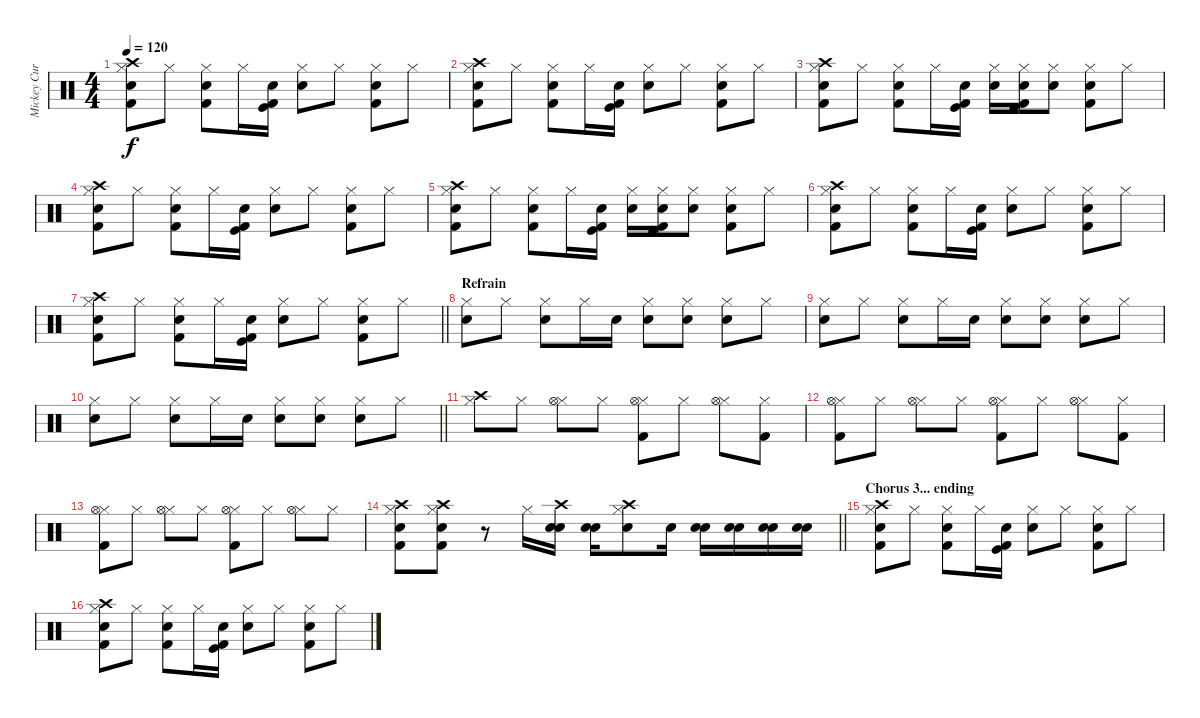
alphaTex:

\track ("Mickey Curry" "Mickey Cur") {instrument percussion}
\staff {score}
\articulation defaults
\ts (4 4)
\tempo 120
\clef neutral
\ks c
("Hi-Hat (closed)" "Snare (hit) 2" "Kick (hit) 2" "Crash high (hit)").8{dy f} "Hi-Hat (closed)".8 ("Hi-Hat (closed)" "Snare (hit) 2" "Kick (hit) 2").8 "Hi-Hat (closed)".16 ("Kick (hit)" "Kick (hit) 2" "Electric Snare (hit)").16 ("Hi-Hat (closed)" "Snare (hit) 2").8 "Hi-Hat (closed)".8 ("Hi-Hat (closed)" "Snare (hit) 2" "Kick (hit) 2").8 "Hi-Hat (closed)".8 |
("Hi-Hat (closed)" "Snare (hit) 2" "Kick (hit) 2" "Crash high (hit)").8 "Hi-Hat (closed)".8 ("Hi-Hat (closed)" "Snare (hit) 2" "Kick (hit) 2").8 "Hi-Hat (closed)".16 ("Kick (hit)" "Kick (hit) 2" "Electric Snare (hit)").16 ("Hi-Hat (closed)" "Snare (hit) 2").8 "Hi-Hat (closed)".8 ("Hi-Hat (closed)" "Snare (hit) 2" "Kick (hit) 2").8 "Hi-Hat (closed)".8 |
("Hi-Hat (closed)" "Snare (hit) 2" "Kick (hit) 2" "Crash high (hit)").8 "Hi-Hat (closed)".8 ("Hi-Hat (closed)" "Snare (hit) 2" "Kick (hit) 2").8 "Hi-Hat (closed)".16 ("Kick (hit)" "Kick (hit) 2" "Electric Snare (hit)").16 ("Hi-Hat (closed)" "Snare (hit) 2").16 ("Hi-Hat (closed)" "Kick (hit)" "Kick (hit) 2" "Electric Snare (hit)").16 ("Hi-Hat (closed)" "Snare (hit) 2").8 ("Hi-Hat (closed)" "Snare (hit) 2" "Kick (hit) 2").8 "Hi-Hat (closed)".8 |
("Hi-Hat (closed)" "Snare (hit) 2" "Kick (hit) 2" "Crash high (hit)").8 "Hi-Hat (closed)".8 ("Hi-Hat (closed)" "Snare (hit) 2" "Kick (hit) 2").8 "Hi-Hat (closed)".16 ("Kick (hit)" "Kick (hit) 2" "Electric Snare (hit)").16 ("Hi-Hat (closed)" "Snare (hit) 2").8 "Hi-Hat (closed)".8 ("Hi-Hat (closed)" "Snare (hit) 2" "Kick (hit) 2").8 "Hi-Hat (closed)".8 |
("Hi-Hat (closed)" "Snare (hit) 2" "Kick (hit) 2" "Crash high (hit)").8 "Hi-Hat (closed)".8 ("Hi-Hat (closed)" "Snare (hit) 2" "Kick (hit) 2").8 "Hi-Hat (closed)".16 ("Kick (hit)" "Kick (hit) 2" "Electric Snare (hit)").16 ("Hi-Hat (closed)" "Snare (hit) 2").16 ("Hi-Hat (closed)" "Kick (hit)" "Kick (hit) 2" "Electric Snare (hit)").16 ("Hi-Hat (closed)" "Snare (hit) 2").8 ("Hi-Hat (closed)" "Snare (hit) 2" "Kick (hit) 2").8 "Hi-Hat (closed)".8 |
("Hi-Hat (closed)" "Snare (hit) 2" "Kick (hit) 2" "Crash high (hit)").8 "Hi-Hat (closed)".8 ("Hi-Hat (closed)" "Snare (hit) 2" "Kick (hit) 2").8 "Hi-Hat (closed)".16 ("Kick (hit)" "Kick (hit) 2" "Electric Snare (hit)").16 ("Hi-Hat (closed)" "Snare (hit) 2").8 "Hi-Hat (closed)".8 ("Hi-Hat (closed)" "Snare (hit) 2" "Kick (hit) 2").8 "Hi-Hat (closed)".8 |
\barLineRight lightlight
("Hi-Hat (closed)" "Snare (hit) 2" "Kick (hit) 2" "Crash high (hit)").8 "Hi-Hat (closed)".8 ("Hi-Hat (closed)" "Snare (hit) 2" "Kick (hit) 2").8 "Hi-Hat (closed)".16 ("Kick (hit)" "Kick (hit) 2" "Electric Snare (hit)").16 ("Hi-Hat (closed)" "Snare (hit) 2").8 "Hi-Hat (closed)".8 ("Hi-Hat (closed)" "Snare (hit) 2" "Kick (hit) 2").8 "Hi-Hat (closed)".8 |
\section ("" "Refrain")
("Hi-Hat (closed)" "Snare (hit) 2").8 "Hi-Hat (closed)".8 ("Hi-Hat (closed)" "Snare (hit) 2").8 "Hi-Hat (closed)".16 "Electric Snare (hit)".16 ("Hi-Hat (closed)" "Snare (hit) 2").8 ("Hi-Hat (closed)" "Snare (hit) 2").8 ("Hi-Hat (closed)" "Snare (hit) 2").8 "Hi-Hat (closed)".8 |
("Hi-Hat (closed)" "Snare (hit) 2").8 "Hi-Hat (closed)".8 ("Hi-Hat (closed)" "Snare (hit) 2").8 "Hi-Hat (closed)".16 "Electric Snare (hit)".16 ("Hi-Hat (closed)" "Snare (hit) 2").8 ("Hi-Hat (closed)" "Snare (hit) 2").8 ("Hi-Hat (closed)" "Snare (hit) 2").8 "Hi-Hat (closed)".8 |
\barLineRight lightlight
("Hi-Hat (closed)" "Snare (hit) 2").8 "Hi-Hat (closed)".8 ("Hi-Hat (closed)" "Snare (hit) 2").8 "Hi-Hat (closed)".16 "Electric Snare (hit)".16 ("Hi-Hat (closed)" "Snare (hit) 2").8 ("Hi-Hat (closed)" "Snare (hit) 2").8 ("Hi-Hat (closed)" "Snare (hit) 2").8 "Hi-Hat (closed)".8 |
("Hi-Hat (closed)" "Crash high (hit)").8 "Hi-Hat (closed)".8 ("Hi-Hat (closed)" "Hi-Hat (open)").8 "Hi-Hat (closed)".8 ("Hi-Hat (closed)" "Kick (hit) 2" "Hi-Hat (open)").8 "Hi-Hat (closed)".8 ("Hi-Hat (closed)" "Hi-Hat (open)").8 ("Hi-Hat (closed)" "Kick (hit) 2").8 |
("Hi-Hat (closed)" "Kick (hit) 2" "Hi-Hat (open)").8 "Hi-Hat (closed)".8 ("Hi-Hat (closed)" "Hi-Hat (open)").8 "Hi-Hat (closed)".8 ("Hi-Hat (closed)" "Kick (hit) 2" "Hi-Hat (open)").8 "Hi-Hat (closed)".8 ("Hi-Hat (closed)" "Hi-Hat (open)").8 ("Hi-Hat (closed)" "Kick (hit) 2").8 |
("Hi-Hat (closed)" "Kick (hit) 2" "Hi-Hat (open)").8 "Hi-Hat (closed)".8 ("Hi-Hat (closed)" "Hi-Hat (open)").8 "Hi-Hat (closed)".8 ("Hi-Hat (closed)" "Kick (hit) 2" "Hi-Hat (open)").8 "Hi-Hat (closed)".8 ("Hi-Hat (closed)" "Hi-Hat (open)").8 "Hi-Hat (closed)".8 |
\barLineRight lightlight
("Hi-Hat (closed)" "Snare (hit) 2" "Kick (hit) 2" "Crash high (hit)").8 ("Hi-Hat (closed)" "Snare (hit) 2" "Kick (hit) 2" "Crash high (hit)").8 r.8 "Hi-Hat (closed)".16 ("Snare (hit) 2" "Snare (hit) 2" "Crash high (hit)").16 ("Snare (hit) 2" "Snare (hit) 2").16 ("Snare (hit) 2" "Hi-Hat (closed)" "Crash high (hit)").8 "Snare (hit) 2".16 ("Snare (hit) 2" "Snare (hit) 2").16 ("Snare (hit) 2" "Snare (hit) 2").16 ("Snare (hit) 2" "Snare (hit) 2").16 ("Snare (hit) 2" "Snare (hit) 2").16 |
\section ("" "Chorus 3... ending")
("Hi-Hat (closed)" "Snare (hit) 2" "Kick (hit) 2" "Crash high (hit)").8 "Hi-Hat (closed)".8 ("Hi-Hat (closed)" "Snare (hit) 2" "Kick (hit) 2").8 "Hi-Hat (closed)".16 ("Kick (hit)" "Kick (hit) 2" "Electric Snare (hit)").16 ("Hi-Hat (closed)" "Snare (hit) 2").8 "Hi-Hat (closed)".8 ("Hi-Hat (closed)" "Snare (hit) 2" "Kick (hit) 2").8 "Hi-Hat (closed)".8 |
("Hi-Hat (closed)" "Snare (hit) 2" "Kick (hit) 2" "Crash high (hit)").8 "Hi-Hat (closed)".8 ("Hi-Hat (closed)" "Snare (hit) 2" "Kick (hit) 2").8 "Hi-Hat (closed)".16 ("Kick (hit)" "Kick (hit) 2" "Electric Snare (hit)").16 ("Hi-Hat (closed)" "Snare (hit) 2").8 "Hi-Hat (closed)".8 ("Hi-Hat (closed)" "Snare (hit) 2" "Kick (hit) 2").8 "Hi-Hat (closed)".8
